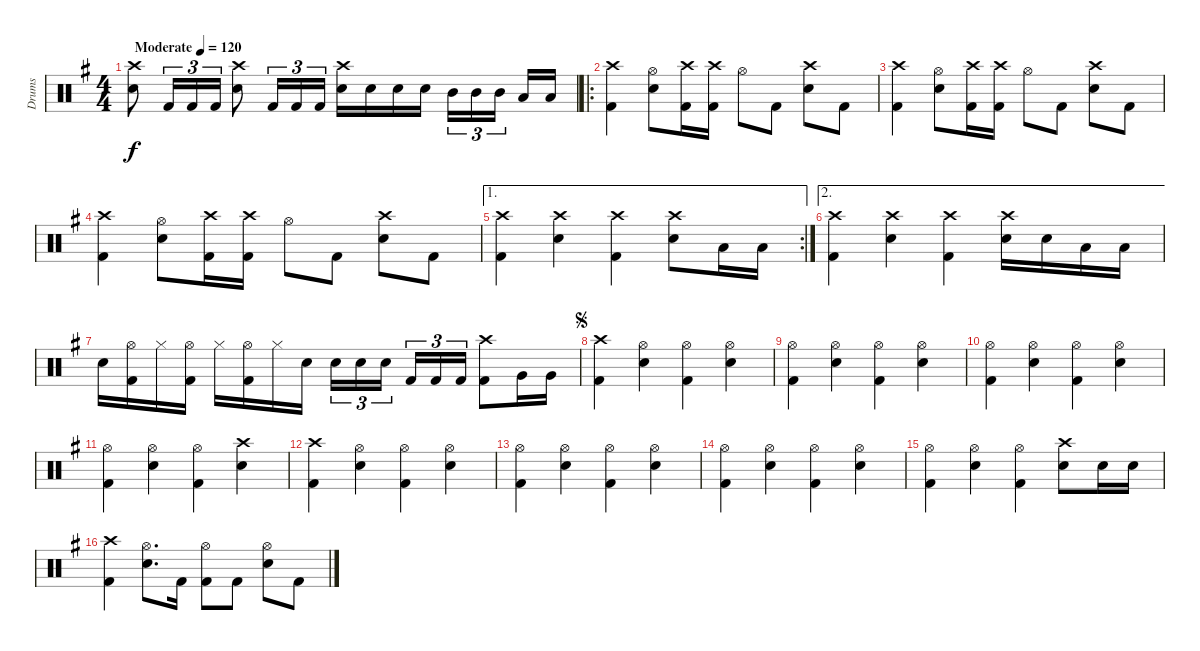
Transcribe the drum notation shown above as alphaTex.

\track ("Drums" "Drums") {instrument percussion}
\staff {score}
\articulation defaults
\ts (4 4)
\tempo (120 "Moderate")
\clef neutral
\ks g
("Snare (hit) 2" "Crash high (hit)").8{dy f} "Kick (hit) 2".16{tu (3 2)} "Kick (hit) 2".16{tu (3 2)} "Kick (hit) 2".16{tu (3 2)} ("Snare (hit) 2" "Crash high (hit)").8 "Kick (hit) 2".16{tu (3 2)} "Kick (hit) 2".16{tu (3 2)} "Kick (hit) 2".16{tu (3 2)} ("Snare (hit) 2" "Crash high (hit)").16 "Snare (hit) 2".16 "Snare (hit) 2".16 "Snare (hit) 2".16 "Mid Tom (hit)".16{tu (3 2)} "Mid Tom (hit)".16{tu (3 2)} "Mid Tom (hit)".16{tu (3 2) beam splitsecondary} "Low Tom (hit)".16 "Low Tom (hit)".16 |
\ro
("Kick (hit) 2" "Crash high (hit)").4 ("Snare (hit) 2" "Hi-Hat (open)").8 ("Kick (hit) 2" "Crash high (hit)").16 ("Kick (hit) 2" "Crash high (hit)").16 "Hi-Hat (open)".8 "Kick (hit) 2".8 ("Snare (hit) 2" "Crash high (hit)").8 "Kick (hit) 2".8 |
("Kick (hit) 2" "Crash high (hit)").4 ("Snare (hit) 2" "Hi-Hat (open)").8 ("Kick (hit) 2" "Crash high (hit)").16 ("Kick (hit) 2" "Crash high (hit)").16 "Hi-Hat (open)".8 "Kick (hit) 2".8 ("Snare (hit) 2" "Crash high (hit)").8 "Kick (hit) 2".8 |
("Kick (hit) 2" "Crash high (hit)").4 ("Snare (hit) 2" "Hi-Hat (open)").8 ("Kick (hit) 2" "Crash high (hit)").16 ("Kick (hit) 2" "Crash high (hit)").16 "Hi-Hat (open)".8 "Kick (hit) 2".8 ("Snare (hit) 2" "Crash high (hit)").8 "Kick (hit) 2".8 |
\ae 1
\rc 2
("Crash high (hit)" "Kick (hit) 2").4 ("Crash high (hit)" "Snare (hit) 2").4 ("Crash high (hit)" "Kick (hit) 2").4 ("Crash high (hit)" "Snare (hit) 2").8 "Low Tom (hit)".16 "Low Tom (hit)".16 |
\ae 2
("Crash high (hit)" "Kick (hit) 2").4 ("Crash high (hit)" "Snare (hit) 2").4 ("Crash high (hit)" "Kick (hit) 2").4 ("Crash high (hit)" "Snare (hit) 2").16 "Snare (hit) 2".16 "Low Tom (hit)".16 "Low Tom (hit)".16 |
"Snare (hit) 2".16 ("Hi-Hat (open)" "Kick (hit) 2").16 "Hi-Hat (closed)".16 ("Hi-Hat (open)" "Kick (hit) 2").16 "Hi-Hat (closed)".16 ("Hi-Hat (open)" "Kick (hit) 2").16 "Hi-Hat (closed)".16 "Snare (hit) 2".16 "Snare (hit) 2".16{tu (3 2)} "Snare (hit) 2".16{tu (3 2)} "Snare (hit) 2".16{tu (3 2) beam splitsecondary} "Kick (hit) 2".16{tu (3 2)} "Kick (hit) 2".16{tu (3 2)} "Kick (hit) 2".16{tu (3 2)} ("Crash high (hit)" "Kick (hit) 2").8 "Very Low Tom (hit)".16 "Very Low Tom (hit)".16 |
\jump segno
("Crash high (hit)" "Kick (hit) 2").4 ("Hi-Hat (open)" "Snare (hit) 2").4 ("Hi-Hat (open)" "Kick (hit) 2").4 ("Hi-Hat (open)" "Snare (hit) 2").4 |
("Hi-Hat (open)" "Kick (hit) 2").4 ("Hi-Hat (open)" "Snare (hit) 2").4 ("Hi-Hat (open)" "Kick (hit) 2").4 ("Hi-Hat (open)" "Snare (hit) 2").4 |
("Hi-Hat (open)" "Kick (hit) 2").4 ("Hi-Hat (open)" "Snare (hit) 2").4 ("Hi-Hat (open)" "Kick (hit) 2").4 ("Hi-Hat (open)" "Snare (hit) 2").4 |
("Hi-Hat (open)" "Kick (hit) 2").4 ("Hi-Hat (open)" "Snare (hit) 2").4 ("Hi-Hat (open)" "Kick (hit) 2").4 ("Crash high (hit)" "Snare (hit) 2").4 |
("Crash high (hit)" "Kick (hit) 2").4 ("Hi-Hat (open)" "Snare (hit) 2").4 ("Hi-Hat (open)" "Kick (hit) 2").4 ("Hi-Hat (open)" "Snare (hit) 2").4 |
("Hi-Hat (open)" "Kick (hit) 2").4 ("Hi-Hat (open)" "Snare (hit) 2").4 ("Hi-Hat (open)" "Kick (hit) 2").4 ("Hi-Hat (open)" "Snare (hit) 2").4 |
("Hi-Hat (open)" "Kick (hit) 2").4 ("Hi-Hat (open)" "Snare (hit) 2").4 ("Hi-Hat (open)" "Kick (hit) 2").4 ("Hi-Hat (open)" "Snare (hit) 2").4 |
("Hi-Hat (open)" "Kick (hit) 2").4 ("Hi-Hat (open)" "Snare (hit) 2").4 ("Hi-Hat (open)" "Kick (hit) 2").4 ("Crash high (hit)" "Snare (hit) 2").8 "Snare (hit) 2".16 "Snare (hit) 2".16 |
("Crash high (hit)" "Kick (hit) 2").4 ("Hi-Hat (open)" "Snare (hit) 2").8{d} "Kick (hit) 2".16 ("Hi-Hat (open)" "Kick (hit) 2").8 "Kick (hit) 2".8 ("Hi-Hat (open)" "Snare (hit) 2").8 "Kick (hit) 2".8
